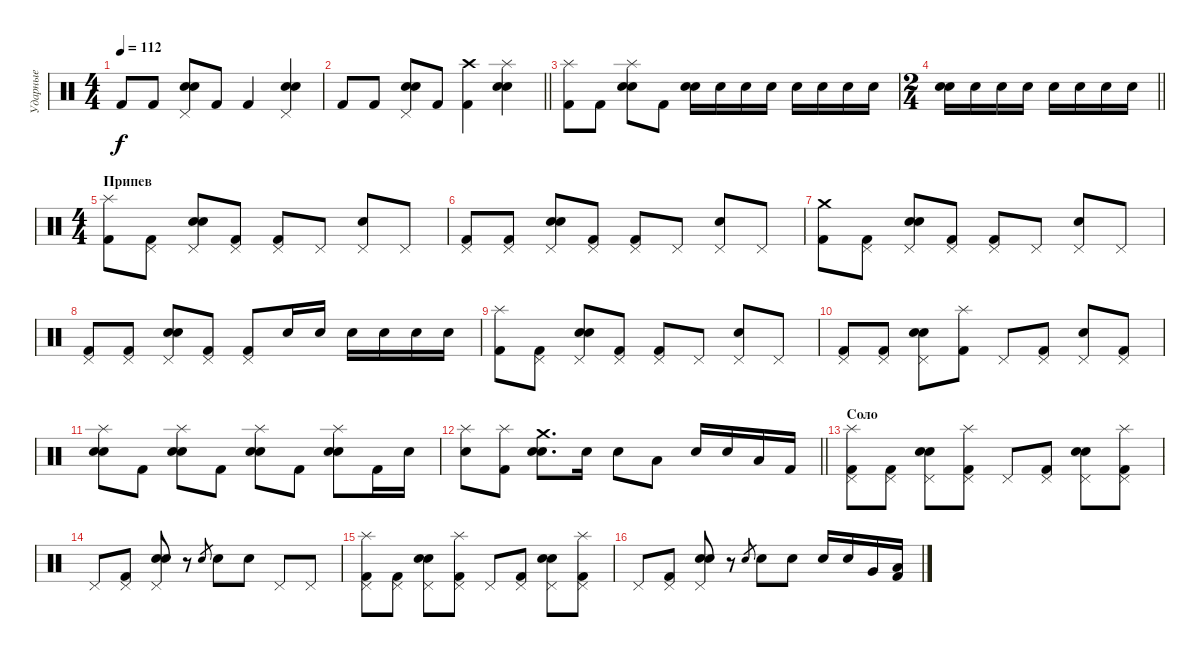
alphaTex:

\track ("Ударные" "Ударные") {instrument percussion}
\staff {score}
\articulation defaults
\ts (4 4)
\tempo 112
\clef neutral
\ks c "Kick (hit) 2".8{dy f} "Kick (hit) 2".8
("Pedal Hi-Hat (hit)" "Electric Snare (hit)" "Snare (hit) 2").8 "Kick (hit) 2".8 "Kick (hit) 2".4 ("Pedal Hi-Hat (hit)" "Electric Snare (hit)" "Snare (hit) 2").4 |
\barLineRight lightlight "Kick (hit) 2".8 "Kick (hit) 2".8
("Pedal Hi-Hat (hit)" "Electric Snare (hit)" "Snare (hit) 2").8 "Kick (hit) 2".8 ("Crash high (hit)" "Kick (hit) 2").4 ("Splash (hit)" "Electric Snare (hit)" "Snare (hit) 2").4 |
("Splash (hit)" "Kick (hit) 2").8 "Kick (hit) 2".8 ("Splash (hit)" "Electric Snare (hit)" "Snare (hit) 2").8 "Kick (hit) 2".8 ("Electric Snare (hit)" "Snare (hit) 2").16 "Electric Snare (hit)".16 "Electric Snare (hit)".16 "Electric Snare (hit)".16 "Electric Snare (hit)".16 "Electric Snare (hit)".16 "Electric Snare (hit)".16 "Electric Snare (hit)".16 |
\ts (2 4)
\barLineRight lightlight
("Electric Snare (hit)" "Snare (hit) 2").16 "Electric Snare (hit)".16 "Electric Snare (hit)".16 "Electric Snare (hit)".16 "Electric Snare (hit)".16 "Electric Snare (hit)".16 "Electric Snare (hit)".16 "Electric Snare (hit)".16 |
\ts (4 4)
\section ("" "Припев")
("Splash (hit)" "Kick (hit) 2").8 ("Pedal Hi-Hat (hit)" "Kick (hit) 2").8 ("Pedal Hi-Hat (hit)" "Electric Snare (hit)" "Snare (hit) 2").8 ("Pedal Hi-Hat (hit)" "Kick (hit) 2").8 ("Pedal Hi-Hat (hit)" "Kick (hit) 2").8 "Pedal Hi-Hat (hit)".8 ("Pedal Hi-Hat (hit)" "Electric Snare (hit)").8 "Pedal Hi-Hat (hit)".8 |
("Pedal Hi-Hat (hit)" "Kick (hit) 2").8 ("Pedal Hi-Hat (hit)" "Kick (hit) 2").8 ("Pedal Hi-Hat (hit)" "Electric Snare (hit)" "Snare (hit) 2").8 ("Pedal Hi-Hat (hit)" "Kick (hit) 2").8 ("Pedal Hi-Hat (hit)" "Kick (hit) 2").8 "Pedal Hi-Hat (hit)".8 ("Pedal Hi-Hat (hit)" "Electric Snare (hit)").8 "Pedal Hi-Hat (hit)".8 |
("Crash medium (hit)" "Kick (hit) 2").8 ("Pedal Hi-Hat (hit)" "Kick (hit) 2").8 ("Pedal Hi-Hat (hit)" "Electric Snare (hit)" "Snare (hit) 2").8 ("Pedal Hi-Hat (hit)" "Kick (hit) 2").8 ("Pedal Hi-Hat (hit)" "Kick (hit) 2").8 "Pedal Hi-Hat (hit)".8 ("Pedal Hi-Hat (hit)" "Electric Snare (hit)").8 "Pedal Hi-Hat (hit)".8 |
("Pedal Hi-Hat (hit)" "Kick (hit) 2").8 ("Pedal Hi-Hat (hit)" "Kick (hit) 2").8 ("Pedal Hi-Hat (hit)" "Electric Snare (hit)" "Snare (hit) 2").8 ("Pedal Hi-Hat (hit)" "Kick (hit) 2").8 ("Pedal Hi-Hat (hit)" "Kick (hit) 2").8 "Electric Snare (hit)".16 "Electric Snare (hit)".16 "Electric Snare (hit)".16 "Electric Snare (hit)".16 "Electric Snare (hit)".16 "Electric Snare (hit)".16 |
("Splash (hit)" "Kick (hit) 2").8 ("Pedal Hi-Hat (hit)" "Kick (hit) 2").8 ("Pedal Hi-Hat (hit)" "Electric Snare (hit)" "Snare (hit) 2").8 ("Pedal Hi-Hat (hit)" "Kick (hit) 2").8 ("Pedal Hi-Hat (hit)" "Kick (hit) 2").8 "Pedal Hi-Hat (hit)".8 ("Pedal Hi-Hat (hit)" "Electric Snare (hit)").8 "Pedal Hi-Hat (hit)".8 |
("Pedal Hi-Hat (hit)" "Kick (hit) 2").8 ("Pedal Hi-Hat (hit)" "Kick (hit) 2").8 ("Pedal Hi-Hat (hit)" "Electric Snare (hit)" "Snare (hit) 2").8 ("Splash (hit)" "Kick (hit) 2").8 "Pedal Hi-Hat (hit)".8 ("Pedal Hi-Hat (hit)" "Kick (hit) 2").8 ("Pedal Hi-Hat (hit)" "Electric Snare (hit)").8 ("Pedal Hi-Hat (hit)" "Kick (hit) 2").8 |
("Splash (hit)" "Electric Snare (hit)" "Snare (hit) 2").8 "Kick (hit) 2".8 ("Splash (hit)" "Electric Snare (hit)" "Snare (hit) 2").8 "Kick (hit) 2".8 ("Splash (hit)" "Electric Snare (hit)" "Snare (hit) 2").8 "Kick (hit) 2".8 ("Splash (hit)" "Electric Snare (hit)" "Snare (hit) 2").8 "Kick (hit) 2".16 "Electric Snare (hit)".16 |
\barLineRight lightlight
("Splash (hit)" "Electric Snare (hit)").8 ("Splash (hit)" "Kick (hit) 2").8 ("Crash medium (hit)" "Electric Snare (hit)" "Snare (hit) 2").8{d} "Electric Snare (hit)".16 "Electric Snare (hit)".8 "Low Floor Tom (hit)".8 "Electric Snare (hit)".16 "Electric Snare (hit)".16 "Low Floor Tom (hit)".16 "Kick (hit) 2".16 |
\section ("" "Соло")
("Splash (hit)" "Pedal Hi-Hat (hit)" "Kick (hit) 2").8 ("Pedal Hi-Hat (hit)" "Kick (hit) 2").8 ("Pedal Hi-Hat (hit)" "Electric Snare (hit)" "Snare (hit) 2").8 ("Splash (hit)" "Pedal Hi-Hat (hit)" "Kick (hit) 2").8 "Pedal Hi-Hat (hit)".8 ("Pedal Hi-Hat (hit)" "Kick (hit) 2").8 ("Pedal Hi-Hat (hit)" "Electric Snare (hit)" "Snare (hit) 2").8 ("Splash (hit)" "Pedal Hi-Hat (hit)" "Kick (hit) 2").8 |
"Pedal Hi-Hat (hit)".8 ("Pedal Hi-Hat (hit)" "Kick (hit) 2").8 ("Pedal Hi-Hat (hit)" "Electric Snare (hit)" "Snare (hit) 2").8 r.8 "Electric Snare (hit)".8{gr} "Electric Snare (hit)".8 "Electric Snare (hit)".8 "Pedal Hi-Hat (hit)".8 "Pedal Hi-Hat (hit)".8 |
("Splash (hit)" "Pedal Hi-Hat (hit)" "Kick (hit) 2").8 ("Pedal Hi-Hat (hit)" "Kick (hit) 2").8 ("Pedal Hi-Hat (hit)" "Electric Snare (hit)" "Snare (hit) 2").8 ("Splash (hit)" "Pedal Hi-Hat (hit)" "Kick (hit) 2").8 "Pedal Hi-Hat (hit)".8 ("Pedal Hi-Hat (hit)" "Kick (hit) 2").8 ("Pedal Hi-Hat (hit)" "Electric Snare (hit)" "Snare (hit) 2").8 ("Splash (hit)" "Pedal Hi-Hat (hit)" "Kick (hit) 2").8 |
"Pedal Hi-Hat (hit)".8 ("Pedal Hi-Hat (hit)" "Kick (hit) 2").8 ("Pedal Hi-Hat (hit)" "Electric Snare (hit)" "Snare (hit) 2").8 r.8 "Electric Snare (hit)".8{gr} "Electric Snare (hit)".8 "Electric Snare (hit)".8 "Electric Snare (hit)".16 "Electric Snare (hit)".16 "Very Low Tom (hit)".16 ("Low Floor Tom (hit)" "Kick (hit) 2").16
